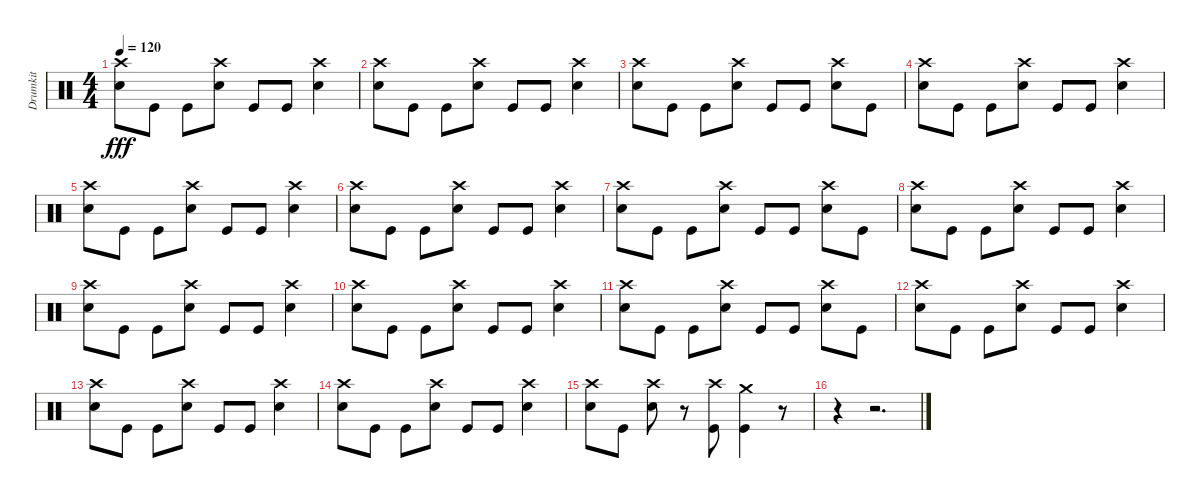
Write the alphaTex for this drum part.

\track ("Drumkit" "Drumkit") {instrument percussion}
\staff {score}
\articulation defaults
\ts (4 4)
\tempo 120
\clef neutral
\ks c
("Snare (hit) 2" "Crash high (hit)").8{dy fff} "Kick (hit)".8 "Kick (hit)".8 ("Snare (hit) 2" "Crash high (hit)").8 "Kick (hit)".8 "Kick (hit)".8 ("Snare (hit) 2" "Crash high (hit)").4 |
("Snare (hit) 2" "Crash high (hit)").8 "Kick (hit)".8 "Kick (hit)".8 ("Snare (hit) 2" "Crash high (hit)").8 "Kick (hit)".8 "Kick (hit)".8 ("Snare (hit) 2" "Crash high (hit)").4 |
("Snare (hit) 2" "Crash high (hit)").8 "Kick (hit)".8 "Kick (hit)".8 ("Snare (hit) 2" "Crash high (hit)").8 "Kick (hit)".8 "Kick (hit)".8 ("Snare (hit) 2" "Crash high (hit)").8 "Kick (hit)".8 |
("Snare (hit) 2" "Crash high (hit)").8 "Kick (hit)".8 "Kick (hit)".8 ("Snare (hit) 2" "Crash high (hit)").8 "Kick (hit)".8 "Kick (hit)".8 ("Snare (hit) 2" "Crash high (hit)").4 |
("Snare (hit) 2" "Crash high (hit)").8 "Kick (hit)".8 "Kick (hit)".8 ("Snare (hit) 2" "Crash high (hit)").8 "Kick (hit)".8 "Kick (hit)".8 ("Snare (hit) 2" "Crash high (hit)").4 |
("Snare (hit) 2" "Crash high (hit)").8 "Kick (hit)".8 "Kick (hit)".8 ("Snare (hit) 2" "Crash high (hit)").8 "Kick (hit)".8 "Kick (hit)".8 ("Snare (hit) 2" "Crash high (hit)").4 |
("Snare (hit) 2" "Crash high (hit)").8 "Kick (hit)".8 "Kick (hit)".8 ("Snare (hit) 2" "Crash high (hit)").8 "Kick (hit)".8 "Kick (hit)".8 ("Snare (hit) 2" "Crash high (hit)").8 "Kick (hit)".8 |
("Snare (hit) 2" "Crash high (hit)").8 "Kick (hit)".8 "Kick (hit)".8 ("Snare (hit) 2" "Crash high (hit)").8 "Kick (hit)".8 "Kick (hit)".8 ("Snare (hit) 2" "Crash high (hit)").4 |
("Snare (hit) 2" "Crash high (hit)").8 "Kick (hit)".8 "Kick (hit)".8 ("Snare (hit) 2" "Crash high (hit)").8 "Kick (hit)".8 "Kick (hit)".8 ("Snare (hit) 2" "Crash high (hit)").4 |
("Snare (hit) 2" "Crash high (hit)").8 "Kick (hit)".8 "Kick (hit)".8 ("Snare (hit) 2" "Crash high (hit)").8 "Kick (hit)".8 "Kick (hit)".8 ("Snare (hit) 2" "Crash high (hit)").4 |
("Snare (hit) 2" "Crash high (hit)").8 "Kick (hit)".8 "Kick (hit)".8 ("Snare (hit) 2" "Crash high (hit)").8 "Kick (hit)".8 "Kick (hit)".8 ("Snare (hit) 2" "Crash high (hit)").8 "Kick (hit)".8 |
("Snare (hit) 2" "Crash high (hit)").8 "Kick (hit)".8 "Kick (hit)".8 ("Snare (hit) 2" "Crash high (hit)").8 "Kick (hit)".8 "Kick (hit)".8 ("Snare (hit) 2" "Crash high (hit)").4 |
("Snare (hit) 2" "Crash high (hit)").8 "Kick (hit)".8 "Kick (hit)".8 ("Snare (hit) 2" "Crash high (hit)").8 "Kick (hit)".8 "Kick (hit)".8 ("Snare (hit) 2" "Crash high (hit)").4 |
("Snare (hit) 2" "Crash high (hit)").8 "Kick (hit)".8 "Kick (hit)".8 ("Snare (hit) 2" "Crash high (hit)").8 "Kick (hit)".8 "Kick (hit)".8 ("Snare (hit) 2" "Crash high (hit)").4 |
("Snare (hit) 2" "Crash high (hit)").8 "Kick (hit)".8 ("Crash high (hit)" "Snare (hit) 2").8 r.8 ("Kick (hit)" "Crash high (hit)").8 ("Kick (hit)" "Crash medium (hit)").4 r.8 |
r.4 r.2{d}
